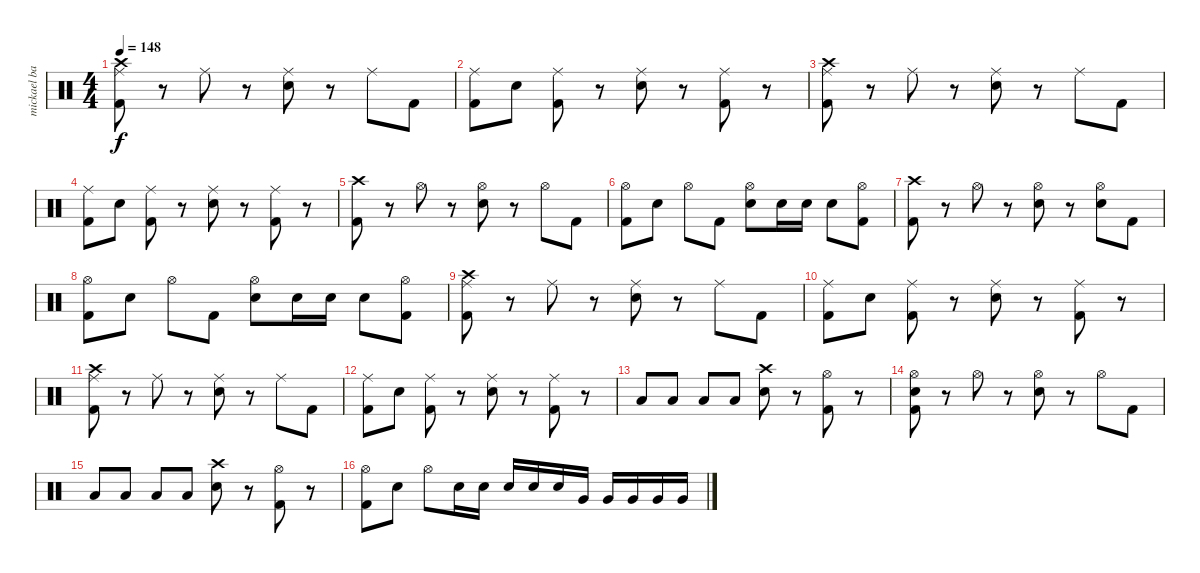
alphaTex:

\track ("mickael barker drums" "mickael ba") {instrument percussion}
\staff {score}
\articulation defaults
\ts (4 4)
\tempo 148
\clef neutral
\ks c
("Crash high (hit)" "Ride (middle)" "Kick (hit) 2").8{dy f} r.8 "Ride (middle)".8 r.8 ("Ride (middle)" "Snare (hit) 2").8 r.8 "Ride (middle)".8 "Kick (hit) 2".8 |
("Ride (middle)" "Kick (hit) 2").8 "Snare (hit) 2".8 ("Ride (middle)" "Kick (hit) 2").8 r.8 ("Ride (middle)" "Snare (hit) 2").8 r.8 ("Ride (middle)" "Kick (hit) 2").8 r.8 |
("Crash high (hit)" "Ride (middle)" "Kick (hit) 2").8 r.8 "Ride (middle)".8 r.8 ("Ride (middle)" "Snare (hit) 2").8 r.8 "Ride (middle)".8 "Kick (hit) 2".8 |
("Ride (middle)" "Kick (hit) 2").8 "Snare (hit) 2".8 ("Ride (middle)" "Kick (hit) 2").8 r.8 ("Ride (middle)" "Snare (hit) 2").8 r.8 ("Ride (middle)" "Kick (hit) 2").8 r.8 |
("Crash high (hit)" "Kick (hit) 2").8 r.8 "Hi-Hat (open)".8 r.8 ("Hi-Hat (open)" "Snare (hit) 2").8 r.8 "Hi-Hat (open)".8 "Kick (hit) 2".8 |
("Hi-Hat (open)" "Kick (hit) 2").8 "Snare (hit) 2".8 "Hi-Hat (open)".8 "Kick (hit) 2".8 ("Hi-Hat (open)" "Snare (hit) 2").8 "Snare (hit) 2".16 "Snare (hit) 2".16 "Snare (hit) 2".8 ("Hi-Hat (open)" "Kick (hit) 2").8 |
("Crash high (hit)" "Kick (hit) 2").8 r.8 "Hi-Hat (open)".8 r.8 ("Hi-Hat (open)" "Snare (hit) 2").8 r.8 ("Hi-Hat (open)" "Snare (hit) 2").8 "Kick (hit) 2".8 |
("Hi-Hat (open)" "Kick (hit) 2").8 "Snare (hit) 2".8 "Hi-Hat (open)".8 "Kick (hit) 2".8 ("Hi-Hat (open)" "Snare (hit) 2").8 "Snare (hit) 2".16 "Snare (hit) 2".16 "Snare (hit) 2".8 ("Hi-Hat (open)" "Kick (hit) 2").8 |
("Crash high (hit)" "Ride (middle)" "Kick (hit) 2").8 r.8 "Ride (middle)".8 r.8 ("Ride (middle)" "Snare (hit) 2").8 r.8 "Ride (middle)".8 "Kick (hit) 2".8 |
("Ride (middle)" "Kick (hit) 2").8 "Snare (hit) 2".8 ("Ride (middle)" "Kick (hit) 2").8 r.8 ("Ride (middle)" "Snare (hit) 2").8 r.8 ("Ride (middle)" "Kick (hit) 2").8 r.8 |
("Crash high (hit)" "Ride (middle)" "Kick (hit) 2").8 r.8 "Ride (middle)".8 r.8 ("Ride (middle)" "Snare (hit) 2").8 r.8 "Ride (middle)".8 "Kick (hit) 2".8 |
("Ride (middle)" "Kick (hit) 2").8 "Snare (hit) 2".8 ("Ride (middle)" "Kick (hit) 2").8 r.8 ("Ride (middle)" "Snare (hit) 2").8 r.8 ("Ride (middle)" "Kick (hit) 2").8 r.8 |
"Low Floor Tom (hit)".8 "Low Floor Tom (hit)".8 "Low Floor Tom (hit)".8 "Low Floor Tom (hit)".8 ("Crash high (hit)" "Snare (hit) 2").8 r.8 ("Hi-Hat (open)" "Kick (hit) 2").8 r.8 |
("Hi-Hat (open)" "Snare (hit) 2" "Kick (hit) 2").8 r.8 "Hi-Hat (open)".8 r.8 ("Hi-Hat (open)" "Snare (hit) 2").8 r.8 "Hi-Hat (open)".8 "Kick (hit) 2".8 |
"Low Floor Tom (hit)".8 "Low Floor Tom (hit)".8 "Low Floor Tom (hit)".8 "Low Floor Tom (hit)".8 ("Crash high (hit)" "Snare (hit) 2").8 r.8 ("Hi-Hat (open)" "Kick (hit) 2").8 r.8 |
("Hi-Hat (open)" "Kick (hit) 2").8 "Snare (hit) 2".8 "Hi-Hat (open)".8 "Snare (hit) 2".16 "Snare (hit) 2".16 "Snare (hit) 2".16 "Snare (hit) 2".16 "Snare (hit) 2".16 "Very Low Tom (hit)".16 "Very Low Tom (hit)".16 "Very Low Tom (hit)".16 "Very Low Tom (hit)".16 "Very Low Tom (hit)".16
